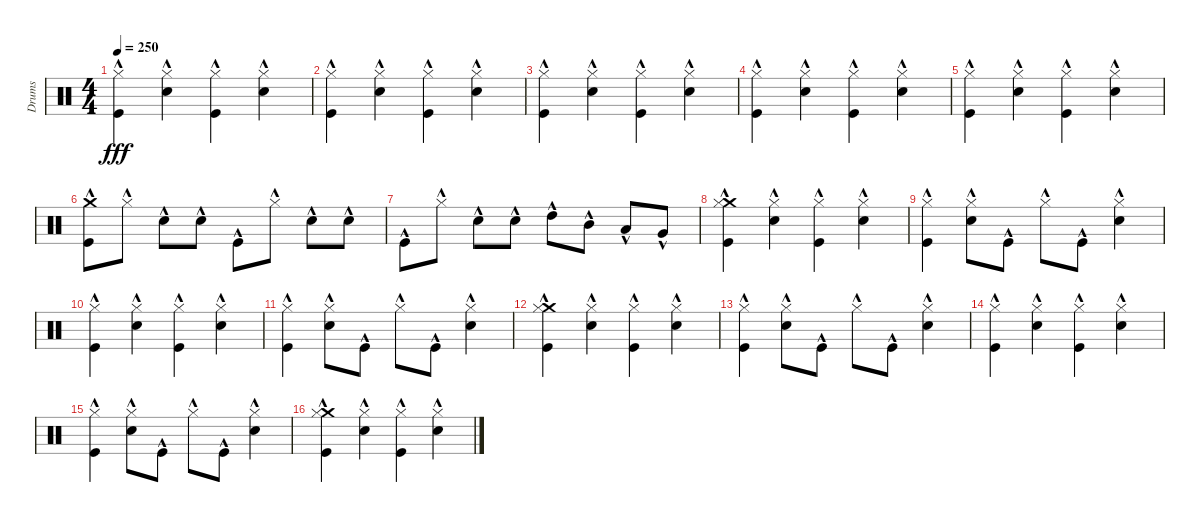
\track ("Drums" "Drums") {instrument percussion}
\staff {score}
\articulation defaults
\ts (4 4)
\tempo 250
\clef neutral
\ks c
("Hi-Hat (closed)"{hac} "Kick (hit)"{hac}).4{dy fff} ("Hi-Hat (closed)"{hac} "Snare (hit) 2"{hac}).4 ("Hi-Hat (closed)"{hac} "Kick (hit)"{hac}).4 ("Hi-Hat (closed)"{hac} "Snare (hit) 2"{hac}).4 |
("Hi-Hat (closed)"{hac} "Kick (hit)"{hac}).4 ("Hi-Hat (closed)"{hac} "Snare (hit) 2"{hac}).4 ("Hi-Hat (closed)"{hac} "Kick (hit)"{hac}).4 ("Hi-Hat (closed)"{hac} "Snare (hit) 2"{hac}).4 |
("Hi-Hat (closed)"{hac} "Kick (hit)"{hac}).4 ("Hi-Hat (closed)"{hac} "Snare (hit) 2"{hac}).4 ("Hi-Hat (closed)"{hac} "Kick (hit)"{hac}).4 ("Hi-Hat (closed)"{hac} "Snare (hit) 2"{hac}).4 |
("Hi-Hat (closed)"{hac} "Kick (hit)"{hac}).4 ("Hi-Hat (closed)"{hac} "Snare (hit) 2"{hac}).4 ("Hi-Hat (closed)"{hac} "Kick (hit)"{hac}).4 ("Hi-Hat (closed)"{hac} "Snare (hit) 2"{hac}).4 |
("Hi-Hat (closed)"{hac} "Kick (hit)"{hac}).4 ("Hi-Hat (closed)"{hac} "Snare (hit) 2"{hac}).4 ("Hi-Hat (closed)"{hac} "Kick (hit)"{hac}).4 ("Hi-Hat (closed)"{hac} "Snare (hit) 2"{hac}).4 |
("Crash medium (hit)"{hac} "Kick (hit)"{hac}).8 "Hi-Hat (closed)"{hac}.8 "Snare (hit) 2"{hac}.8 "Snare (hit) 2"{hac}.8 "Kick (hit)"{hac}.8 "Hi-Hat (closed)"{hac}.8 "Snare (hit) 2"{hac}.8 "Snare (hit) 2"{hac}.8 |
"Kick (hit)"{hac}.8 "Hi-Hat (closed)"{hac}.8 "Snare (hit) 2"{hac}.8 "Snare (hit) 2"{hac}.8 "High Tom (hit)"{hac}.8 "Mid Tom (hit)"{hac}.8 "Low Tom (hit)"{hac}.8 "Very Low Tom (hit)"{hac}.8 |
("Crash medium (hit)"{hac} "Hi-Hat (closed)"{hac} "Kick (hit)"{hac}).4 ("Hi-Hat (closed)"{hac} "Snare (hit) 2"{hac}).4 ("Hi-Hat (closed)"{hac} "Kick (hit)"{hac}).4 ("Hi-Hat (closed)"{hac} "Snare (hit) 2"{hac}).4 |
("Hi-Hat (closed)"{hac} "Kick (hit)"{hac}).4 ("Hi-Hat (closed)"{hac} "Snare (hit) 2"{hac}).8 "Kick (hit)"{hac}.8 "Hi-Hat (closed)"{hac}.8 "Kick (hit)"{hac}.8 ("Hi-Hat (closed)"{hac} "Snare (hit) 2"{hac}).4 |
("Hi-Hat (closed)"{hac} "Kick (hit)"{hac}).4 ("Hi-Hat (closed)"{hac} "Snare (hit) 2"{hac}).4 ("Hi-Hat (closed)"{hac} "Kick (hit)"{hac}).4 ("Hi-Hat (closed)"{hac} "Snare (hit) 2"{hac}).4 |
("Hi-Hat (closed)"{hac} "Kick (hit)"{hac}).4 ("Hi-Hat (closed)"{hac} "Snare (hit) 2"{hac}).8 "Kick (hit)"{hac}.8 "Hi-Hat (closed)"{hac}.8 "Kick (hit)"{hac}.8 ("Hi-Hat (closed)"{hac} "Snare (hit) 2"{hac}).4 |
("Crash medium (hit)"{hac} "Hi-Hat (closed)"{hac} "Kick (hit)"{hac}).4 ("Hi-Hat (closed)"{hac} "Snare (hit) 2"{hac}).4 ("Hi-Hat (closed)"{hac} "Kick (hit)"{hac}).4 ("Hi-Hat (closed)"{hac} "Snare (hit) 2"{hac}).4 |
("Hi-Hat (closed)"{hac} "Kick (hit)"{hac}).4 ("Hi-Hat (closed)"{hac} "Snare (hit) 2"{hac}).8 "Kick (hit)"{hac}.8 "Hi-Hat (closed)"{hac}.8 "Kick (hit)"{hac}.8 ("Hi-Hat (closed)"{hac} "Snare (hit) 2"{hac}).4 |
("Hi-Hat (closed)"{hac} "Kick (hit)"{hac}).4 ("Hi-Hat (closed)"{hac} "Snare (hit) 2"{hac}).4 ("Hi-Hat (closed)"{hac} "Kick (hit)"{hac}).4 ("Hi-Hat (closed)"{hac} "Snare (hit) 2"{hac}).4 |
("Hi-Hat (closed)"{hac} "Kick (hit)"{hac}).4 ("Hi-Hat (closed)"{hac} "Snare (hit) 2"{hac}).8 "Kick (hit)"{hac}.8 "Hi-Hat (closed)"{hac}.8 "Kick (hit)"{hac}.8 ("Hi-Hat (closed)"{hac} "Snare (hit) 2"{hac}).4 |
("Crash medium (hit)"{hac} "Hi-Hat (closed)"{hac} "Kick (hit)"{hac}).4 ("Hi-Hat (closed)"{hac} "Snare (hit) 2"{hac}).4 ("Hi-Hat (closed)"{hac} "Kick (hit)"{hac}).4 ("Hi-Hat (closed)"{hac} "Snare (hit) 2"{hac}).4
